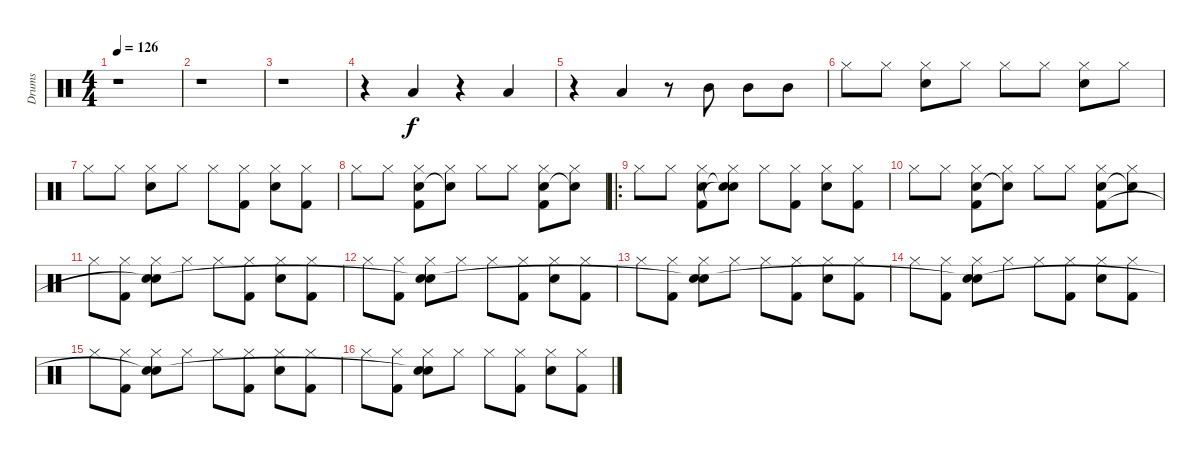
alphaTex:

\track ("Drums" "Drums") {instrument percussion}
\staff {score}
\articulation defaults
\ts (4 4)
\tempo 126
\clef neutral
\ks c
r.1{dy f} |
r.1 |
r.1 |
r.4 "Low Tom (hit)".4 r.4 "Low Tom (hit)".4 |
r.4 "Low Tom (hit)".4 r.8 "Mid Tom (hit)".8 "Mid Tom (hit)".8 "Mid Tom (hit)".8 |
"Hi-Hat (closed)".8 "Hi-Hat (closed)".8 ("Hi-Hat (closed)" "Snare (hit) 2").8 "Hi-Hat (closed)".8 "Hi-Hat (closed)".8 "Hi-Hat (closed)".8 ("Hi-Hat (closed)" "Snare (hit) 2").8 "Hi-Hat (closed)".8 |
"Hi-Hat (closed)".8 "Hi-Hat (closed)".8 ("Hi-Hat (closed)" "Snare (hit) 2").8 "Hi-Hat (closed)".8 "Hi-Hat (closed)".8 ("Hi-Hat (closed)" "Kick (hit) 2").8 ("Hi-Hat (closed)" "Snare (hit) 2").8 ("Hi-Hat (closed)" "Kick (hit) 2").8 |
"Hi-Hat (closed)".8 "Hi-Hat (closed)".8 ("Hi-Hat (closed)" "Snare (hit) 2" "Kick (hit) 2").8 ("Hi-Hat (closed)" "Snare (hit)"{t}).8 "Hi-Hat (closed)".8 "Hi-Hat (closed)".8 ("Hi-Hat (closed)" "Snare (hit) 2" "Kick (hit) 2").8 ("Hi-Hat (closed)" "Snare (hit)"{t}).8 |
\ro "Hi-Hat (closed)".8 "Hi-Hat (closed)".8
("Hi-Hat (closed)" "Snare (hit) 2" "Kick (hit) 2").8 ("Hi-Hat (closed)" "Snare (hit)"{t} "Snare (hit)"{t}).8 "Hi-Hat (closed)".8 ("Hi-Hat (closed)" "Kick (hit) 2").8 ("Hi-Hat (closed)" "Snare (hit) 2").8 ("Hi-Hat (closed)" "Kick (hit) 2").8 |
"Hi-Hat (closed)".8 "Hi-Hat (closed)".8 ("Hi-Hat (closed)" "Snare (hit) 2" "Kick (hit) 2").8 ("Hi-Hat (closed)" "Snare (hit)"{t}).8 "Hi-Hat (closed)".8 "Hi-Hat (closed)".8 ("Hi-Hat (closed)" "Snare (hit) 2" "Kick (hit) 2").8 ("Hi-Hat (closed)" "Snare (hit)"{t}).8 |
"Hi-Hat (closed)".8 ("Hi-Hat (closed)" "Kick (hit) 2").8 ("Hi-Hat (closed)" "Snare (hit) 2" "Snare (hit)"{t}).8 "Hi-Hat (closed)".8 "Hi-Hat (closed)".8 ("Hi-Hat (closed)" "Kick (hit) 2").8 ("Hi-Hat (closed)" "Snare (hit) 2").8 ("Hi-Hat (closed)" "Kick (hit) 2").8 |
"Hi-Hat (closed)".8 ("Hi-Hat (closed)" "Kick (hit) 2").8 ("Hi-Hat (closed)" "Snare (hit) 2" "Snare (hit)"{t}).8 "Hi-Hat (closed)".8 "Hi-Hat (closed)".8 ("Hi-Hat (closed)" "Kick (hit) 2").8 ("Hi-Hat (closed)" "Snare (hit) 2").8 ("Hi-Hat (closed)" "Kick (hit) 2").8 |
"Hi-Hat (closed)".8 ("Hi-Hat (closed)" "Kick (hit) 2").8 ("Hi-Hat (closed)" "Snare (hit) 2" "Snare (hit)"{t}).8 "Hi-Hat (closed)".8 "Hi-Hat (closed)".8 ("Hi-Hat (closed)" "Kick (hit) 2").8 ("Hi-Hat (closed)" "Snare (hit) 2").8 ("Hi-Hat (closed)" "Kick (hit) 2").8 |
"Hi-Hat (closed)".8 ("Hi-Hat (closed)" "Kick (hit) 2").8 ("Hi-Hat (closed)" "Snare (hit) 2" "Snare (hit)"{t}).8 "Hi-Hat (closed)".8 "Hi-Hat (closed)".8 ("Hi-Hat (closed)" "Kick (hit) 2").8 ("Hi-Hat (closed)" "Snare (hit) 2").8 ("Hi-Hat (closed)" "Kick (hit) 2").8 |
"Hi-Hat (closed)".8 ("Hi-Hat (closed)" "Kick (hit) 2").8 ("Hi-Hat (closed)" "Snare (hit) 2" "Snare (hit)"{t}).8 "Hi-Hat (closed)".8 "Hi-Hat (closed)".8 ("Hi-Hat (closed)" "Kick (hit) 2").8 ("Hi-Hat (closed)" "Snare (hit) 2").8 ("Hi-Hat (closed)" "Kick (hit) 2").8 |
"Hi-Hat (closed)".8 ("Hi-Hat (closed)" "Kick (hit) 2").8 ("Hi-Hat (closed)" "Snare (hit) 2" "Snare (hit)"{t}).8 "Hi-Hat (closed)".8 "Hi-Hat (closed)".8 ("Hi-Hat (closed)" "Kick (hit) 2").8 ("Hi-Hat (closed)" "Snare (hit) 2").8 ("Hi-Hat (closed)" "Kick (hit) 2").8
